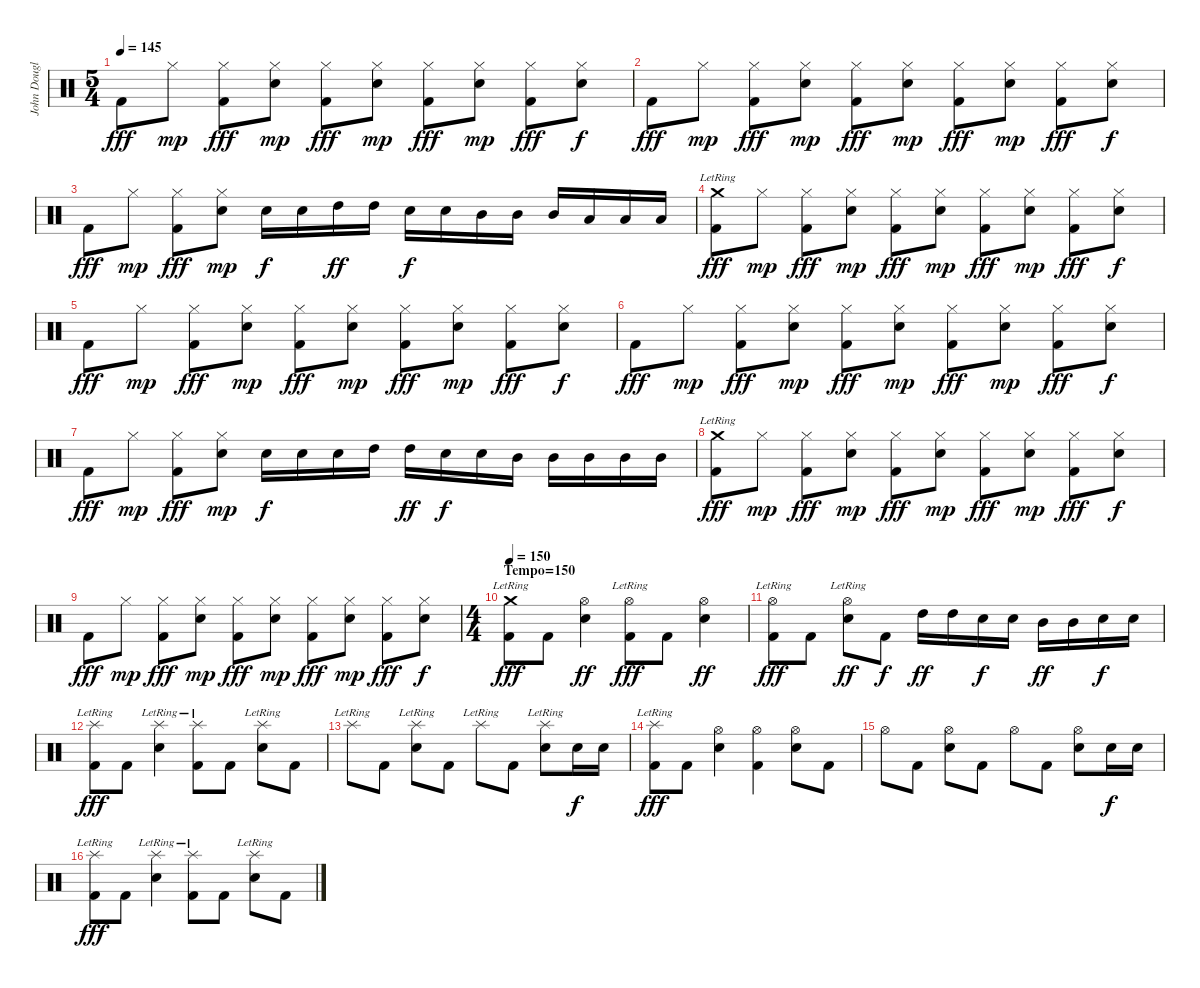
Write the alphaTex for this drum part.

\track ("John Douglas (Drums)" "John Dougl") {instrument percussion}
\staff {score}
\articulation defaults
\ts (5 4)
\tempo 145
\clef neutral
\ks c "Kick (hit) 2".8{dy fff} "Hi-Hat (closed)".8{dy mp}
("Hi-Hat (closed)" "Kick (hit) 2").8{dy fff} ("Hi-Hat (closed)" "Snare (hit) 2").8{dy mp} ("Hi-Hat (closed)" "Kick (hit) 2").8{dy fff} ("Hi-Hat (closed)" "Snare (hit) 2").8{dy mp} ("Hi-Hat (closed)" "Kick (hit) 2").8{dy fff} ("Hi-Hat (closed)" "Snare (hit) 2").8{dy mp} ("Hi-Hat (closed)" "Kick (hit) 2").8{dy fff} ("Hi-Hat (closed)" "Snare (hit) 2").8{dy f} |
"Kick (hit) 2".8{dy fff} "Hi-Hat (closed)".8{dy mp} ("Hi-Hat (closed)" "Kick (hit) 2").8{dy fff} ("Hi-Hat (closed)" "Snare (hit) 2").8{dy mp} ("Hi-Hat (closed)" "Kick (hit) 2").8{dy fff} ("Hi-Hat (closed)" "Snare (hit) 2").8{dy mp} ("Hi-Hat (closed)" "Kick (hit) 2").8{dy fff} ("Hi-Hat (closed)" "Snare (hit) 2").8{dy mp} ("Hi-Hat (closed)" "Kick (hit) 2").8{dy fff} ("Hi-Hat (closed)" "Snare (hit) 2").8{dy f} |
"Kick (hit) 2".8{dy fff} "Hi-Hat (closed)".8{dy mp} ("Hi-Hat (closed)" "Kick (hit) 2").8{dy fff} ("Hi-Hat (closed)" "Snare (hit) 2").8{dy mp} "Snare (hit) 2".16{dy f} "Snare (hit) 2".16 "High Tom (hit)".16{dy ff} "High Tom (hit)".16 "Snare (hit) 2".16{dy f} "Snare (hit) 2".16 "Mid Tom (hit)".16 "Mid Tom (hit)".16 "Mid Tom (hit)".16 "Low Tom (hit)".16 "Low Tom (hit)".16 "Low Tom (hit)".16 |
("Crash medium (hit)"{lr} "Kick (hit) 2").8{dy fff} "Hi-Hat (closed)".8{dy mp} ("Hi-Hat (closed)" "Kick (hit) 2").8{dy fff} ("Hi-Hat (closed)" "Snare (hit) 2").8{dy mp} ("Hi-Hat (closed)" "Kick (hit) 2").8{dy fff} ("Hi-Hat (closed)" "Snare (hit) 2").8{dy mp} ("Hi-Hat (closed)" "Kick (hit) 2").8{dy fff} ("Hi-Hat (closed)" "Snare (hit) 2").8{dy mp} ("Hi-Hat (closed)" "Kick (hit) 2").8{dy fff} ("Hi-Hat (closed)" "Snare (hit) 2").8{dy f} |
"Kick (hit) 2".8{dy fff} "Hi-Hat (closed)".8{dy mp} ("Hi-Hat (closed)" "Kick (hit) 2").8{dy fff} ("Hi-Hat (closed)" "Snare (hit) 2").8{dy mp} ("Hi-Hat (closed)" "Kick (hit) 2").8{dy fff} ("Hi-Hat (closed)" "Snare (hit) 2").8{dy mp} ("Hi-Hat (closed)" "Kick (hit) 2").8{dy fff} ("Hi-Hat (closed)" "Snare (hit) 2").8{dy mp} ("Hi-Hat (closed)" "Kick (hit) 2").8{dy fff} ("Hi-Hat (closed)" "Snare (hit) 2").8{dy f} |
"Kick (hit) 2".8{dy fff} "Hi-Hat (closed)".8{dy mp} ("Hi-Hat (closed)" "Kick (hit) 2").8{dy fff} ("Hi-Hat (closed)" "Snare (hit) 2").8{dy mp} ("Hi-Hat (closed)" "Kick (hit) 2").8{dy fff} ("Hi-Hat (closed)" "Snare (hit) 2").8{dy mp} ("Hi-Hat (closed)" "Kick (hit) 2").8{dy fff} ("Hi-Hat (closed)" "Snare (hit) 2").8{dy mp} ("Hi-Hat (closed)" "Kick (hit) 2").8{dy fff} ("Hi-Hat (closed)" "Snare (hit) 2").8{dy f} |
"Kick (hit) 2".8{dy fff} "Hi-Hat (closed)".8{dy mp} ("Hi-Hat (closed)" "Kick (hit) 2").8{dy fff} ("Hi-Hat (closed)" "Snare (hit) 2").8{dy mp} "Snare (hit) 2".16{dy f} "Snare (hit) 2".16 "Snare (hit) 2".16 "High Tom (hit)".16 "High Tom (hit)".16{dy ff} "Snare (hit) 2".16{dy f} "Snare (hit) 2".16 "Mid Tom (hit)".16 "Mid Tom (hit)".16 "Mid Tom (hit)".16 "Mid Tom (hit)".16 "Mid Tom (hit)".16 |
("Crash medium (hit)"{lr} "Kick (hit) 2").8{dy fff} "Hi-Hat (closed)".8{dy mp} ("Hi-Hat (closed)" "Kick (hit) 2").8{dy fff} ("Hi-Hat (closed)" "Snare (hit) 2").8{dy mp} ("Hi-Hat (closed)" "Kick (hit) 2").8{dy fff} ("Hi-Hat (closed)" "Snare (hit) 2").8{dy mp} ("Hi-Hat (closed)" "Kick (hit) 2").8{dy fff} ("Hi-Hat (closed)" "Snare (hit) 2").8{dy mp} ("Hi-Hat (closed)" "Kick (hit) 2").8{dy fff} ("Hi-Hat (closed)" "Snare (hit) 2").8{dy f} |
"Kick (hit) 2".8{dy fff} "Hi-Hat (closed)".8{dy mp} ("Hi-Hat (closed)" "Kick (hit) 2").8{dy fff} ("Hi-Hat (closed)" "Snare (hit) 2").8{dy mp} ("Hi-Hat (closed)" "Kick (hit) 2").8{dy fff} ("Hi-Hat (closed)" "Snare (hit) 2").8{dy mp} ("Hi-Hat (closed)" "Kick (hit) 2").8{dy fff} ("Hi-Hat (closed)" "Snare (hit) 2").8{dy mp} ("Hi-Hat (closed)" "Kick (hit) 2").8{dy fff} ("Hi-Hat (closed)" "Snare (hit) 2").8{dy f} |
\ts (4 4)
\section ("" "Tempo=150")
\tempo 150
("Crash medium (hit)"{lr} "Kick (hit) 2").8{dy fff} "Kick (hit) 2".8 ("Hi-Hat (open)" "Snare (hit) 2").4{dy ff} ("Hi-Hat (open)"{lr} "Kick (hit) 2").8{dy fff} "Kick (hit) 2".8 ("Hi-Hat (open)" "Snare (hit) 2").4{dy ff} |
("Hi-Hat (open)"{lr} "Kick (hit) 2").8{dy fff} "Kick (hit) 2".8 ("Hi-Hat (open)"{lr} "Snare (hit) 2").8{dy ff} "Kick (hit) 2".8{dy f} "High Tom (hit)".16{dy ff} "High Tom (hit)".16 "Snare (hit) 2".16{dy f} "Snare (hit) 2".16 "Mid Tom (hit)".16{dy ff} "Mid Tom (hit)".16 "Snare (hit) 2".16{dy f} "Snare (hit) 2".16 |
("Splash (hit)"{lr} "Kick (hit) 2").8{dy fff} "Kick (hit) 2".8 ("Splash (hit)"{lr} "Snare (hit) 2").4 ("Splash (hit)"{lr} "Kick (hit) 2").8 "Kick (hit) 2".8 ("Splash (hit)"{lr} "Snare (hit) 2").8 "Kick (hit) 2".8 |
"Splash (hit)"{lr}.8 "Kick (hit) 2".8 ("Splash (hit)"{lr} "Snare (hit) 2").8 "Kick (hit) 2".8 "Splash (hit)"{lr}.8 "Kick (hit) 2".8 ("Splash (hit)"{lr} "Snare (hit) 2").8 "Snare (hit) 2".16{dy f} "Snare (hit) 2".16 |
("Splash (hit)"{lr} "Kick (hit) 2").8{dy fff} "Kick (hit) 2".8 ("Hi-Hat (open)" "Snare (hit) 2").4 ("Hi-Hat (open)" "Kick (hit) 2").4 ("Hi-Hat (open)" "Snare (hit) 2").8 "Kick (hit) 2".8 |
"Hi-Hat (open)".8 "Kick (hit) 2".8 ("Hi-Hat (open)" "Snare (hit) 2").8 "Kick (hit) 2".8 "Hi-Hat (open)".8 "Kick (hit) 2".8 ("Hi-Hat (open)" "Snare (hit) 2").8 "Snare (hit) 2".16{dy f} "Snare (hit) 2".16 |
("Splash (hit)"{lr} "Kick (hit) 2").8{dy fff} "Kick (hit) 2".8 ("Splash (hit)"{lr} "Snare (hit) 2").4 ("Splash (hit)"{lr} "Kick (hit) 2").8 "Kick (hit) 2".8 ("Splash (hit)"{lr} "Snare (hit) 2").8 "Kick (hit) 2".8
